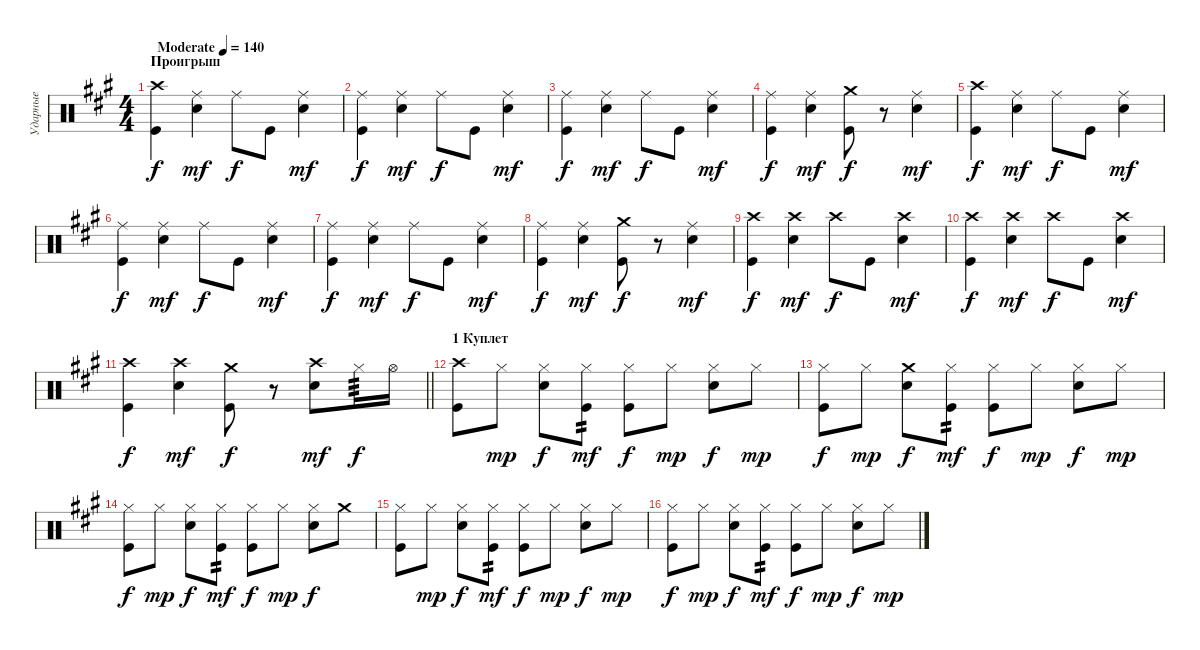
\track ("Ударные" "Ударные") {instrument percussion}
\staff {score}
\articulation defaults
\ts (4 4)
\section ("" "Проигрыш")
\tempo (140 "Moderate")
\clef neutral
\ks f#minor
("Crash high (hit)" "Kick (hit)").4{dy f} ("Ride (middle)" "Snare (hit) 2").4{dy mf} "Ride (middle)".8{dy f} "Kick (hit)".8 ("Ride (middle)" "Snare (hit) 2").4{dy mf} |
("Ride (middle)" "Kick (hit)").4{dy f} ("Ride (middle)" "Snare (hit) 2").4{dy mf} "Ride (middle)".8{dy f} "Kick (hit)".8 ("Ride (middle)" "Snare (hit) 2").4{dy mf} |
("Ride (middle)" "Kick (hit)").4{dy f} ("Ride (middle)" "Snare (hit) 2").4{dy mf} "Ride (middle)".8{dy f} "Kick (hit)".8 ("Ride (middle)" "Snare (hit) 2").4{dy mf} |
("Ride (middle)" "Kick (hit)").4{dy f} ("Ride (middle)" "Snare (hit) 2").4{dy mf} ("Crash medium (hit)" "Kick (hit)").8{dy f} r.8 ("Ride (middle)" "Snare (hit) 2").4{dy mf} |
("Crash high (hit)" "Kick (hit)").4{dy f} ("Ride (middle)" "Snare (hit) 2").4{dy mf} "Ride (middle)".8{dy f} "Kick (hit)".8 ("Ride (middle)" "Snare (hit) 2").4{dy mf} |
("Ride (middle)" "Kick (hit)").4{dy f} ("Ride (middle)" "Snare (hit) 2").4{dy mf} "Ride (middle)".8{dy f} "Kick (hit)".8 ("Ride (middle)" "Snare (hit) 2").4{dy mf} |
("Ride (middle)" "Kick (hit)").4{dy f} ("Ride (middle)" "Snare (hit) 2").4{dy mf} "Ride (middle)".8{dy f} "Kick (hit)".8 ("Ride (middle)" "Snare (hit) 2").4{dy mf} |
("Ride (middle)" "Kick (hit)").4{dy f} ("Ride (middle)" "Snare (hit) 2").4{dy mf} ("Crash medium (hit)" "Kick (hit)").8{dy f} r.8 ("Ride (middle)" "Snare (hit) 2").4{dy mf} |
("Crash high (hit)" "Kick (hit)").4{dy f} ("Crash high (hit)" "Snare (hit) 2").4{dy mf} "Crash high (hit)".8{dy f} "Kick (hit)".8 ("Crash high (hit)" "Snare (hit) 2").4{dy mf} |
("Crash high (hit)" "Kick (hit)").4{dy f} ("Crash high (hit)" "Snare (hit) 2").4{dy mf} "Crash high (hit)".8{dy f} "Kick (hit)".8 ("Crash high (hit)" "Snare (hit) 2").4{dy mf} |
\barLineRight lightlight
("Crash high (hit)" "Kick (hit)").4{dy f} ("Crash high (hit)" "Snare (hit) 2").4{dy mf} ("Crash medium (hit)" "Kick (hit)").8{dy f} r.8 ("Crash high (hit)" "Snare (hit) 2").8{dy mf} "Hi-Hat (closed)".16{tp 3 dy f} "Hi-Hat (open)".16 |
\section ("" "1 Куплет")
("Crash high (hit)" "Kick (hit)").8 "Hi-Hat (closed)".8{dy mp} ("Hi-Hat (closed)" "Snare (hit) 2").8{dy f} ("Hi-Hat (closed)" "Kick (hit)").8{tp 2 dy mf} ("Hi-Hat (closed)" "Kick (hit)").8{dy f} "Hi-Hat (closed)".8{dy mp} ("Hi-Hat (closed)" "Snare (hit) 2").8{dy f} "Hi-Hat (closed)".8{dy mp} |
("Hi-Hat (closed)" "Kick (hit)").8{dy f} "Hi-Hat (closed)".8{dy mp} ("Crash medium (hit)" "Snare (hit) 2").8{dy f} ("Hi-Hat (closed)" "Kick (hit)").8{tp 2 dy mf} ("Hi-Hat (closed)" "Kick (hit)").8{dy f} "Hi-Hat (closed)".8{dy mp} ("Hi-Hat (closed)" "Snare (hit) 2").8{dy f} "Hi-Hat (closed)".8{dy mp} |
("Hi-Hat (closed)" "Kick (hit)").8{dy f} "Hi-Hat (closed)".8{dy mp} ("Hi-Hat (closed)" "Snare (hit) 2").8{dy f} ("Hi-Hat (closed)" "Kick (hit)").8{tp 2 dy mf} ("Hi-Hat (closed)" "Kick (hit)").8{dy f} "Hi-Hat (closed)".8{dy mp} ("Hi-Hat (closed)" "Snare (hit) 2").8{dy f} "Crash medium (hit)".8 |
("Hi-Hat (closed)" "Kick (hit)").8 "Hi-Hat (closed)".8{dy mp} ("Hi-Hat (closed)" "Snare (hit) 2").8{dy f} ("Hi-Hat (closed)" "Kick (hit)").8{tp 2 dy mf} ("Hi-Hat (closed)" "Kick (hit)").8{dy f} "Hi-Hat (closed)".8{dy mp} ("Hi-Hat (closed)" "Snare (hit) 2").8{dy f} "Hi-Hat (closed)".8{dy mp} |
("Hi-Hat (closed)" "Kick (hit)").8{dy f} "Hi-Hat (closed)".8{dy mp} ("Hi-Hat (closed)" "Snare (hit) 2").8{dy f} ("Hi-Hat (closed)" "Kick (hit)").8{tp 2 dy mf} ("Hi-Hat (closed)" "Kick (hit)").8{dy f} "Hi-Hat (closed)".8{dy mp} ("Hi-Hat (closed)" "Snare (hit) 2").8{dy f} "Hi-Hat (closed)".8{dy mp}
